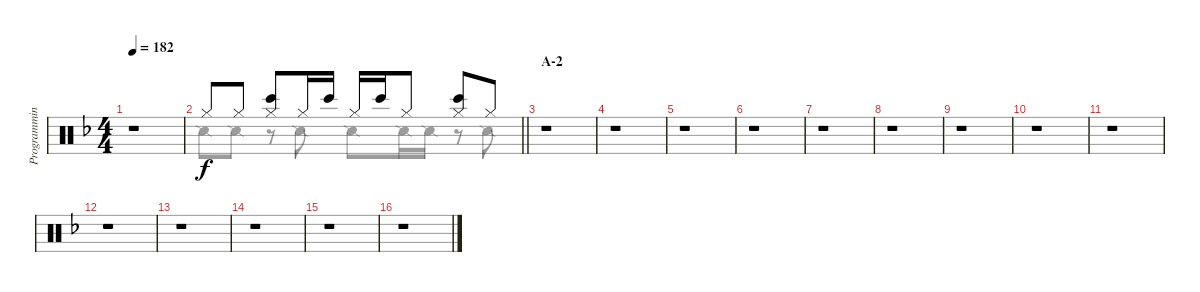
\track ("Programming" "Programmin") {instrument percussion}
\staff {score}
\articulation defaults
\voice
\ts (4 4)
\tempo 182
\clef neutral
\ks f
r.1{dy f} |
\barLineRight lightlight "Hi-Hat (closed)".8 "Hi-Hat (closed)".8
("Hi-Hat (closed)" "Bongo High (hit)").8 "Hi-Hat (closed)".16 "Bongo High (hit)".16 "Hi-Hat (closed)".16 "Bongo High (hit)".16 "Hi-Hat (closed)".8 ("Hi-Hat (closed)" "Bongo High (hit)").8 "Hi-Hat (closed)".8 |
\section ("" "A-2")
r.1 |
r.1 |
r.1 |
r.1 |
r.1 |
r.1 |
r.1 |
r.1 |
r.1 |
r.1 |
r.1 |
r.1 |
r.1 |
r.1
\voice
\clef neutral
\ottava regular
\simile none
\ks f
r.1{dy f} |
\barLineRight lightlight "Snare (side stick) 2".8 "Snare (side stick) 2".8
r.8 "Snare (side stick) 2".8 "Snare (side stick) 2".8 "Snare (side stick) 2".16 "Snare (side stick) 2".16 r.8 "Snare (side stick) 2".8 |
r.1 |
r.1 |
r.1 |
r.1 |
r.1 |
r.1 |
r.1 |
r.1 |
r.1 |
r.1 |
r.1 |
r.1 |
r.1 |
r.1
